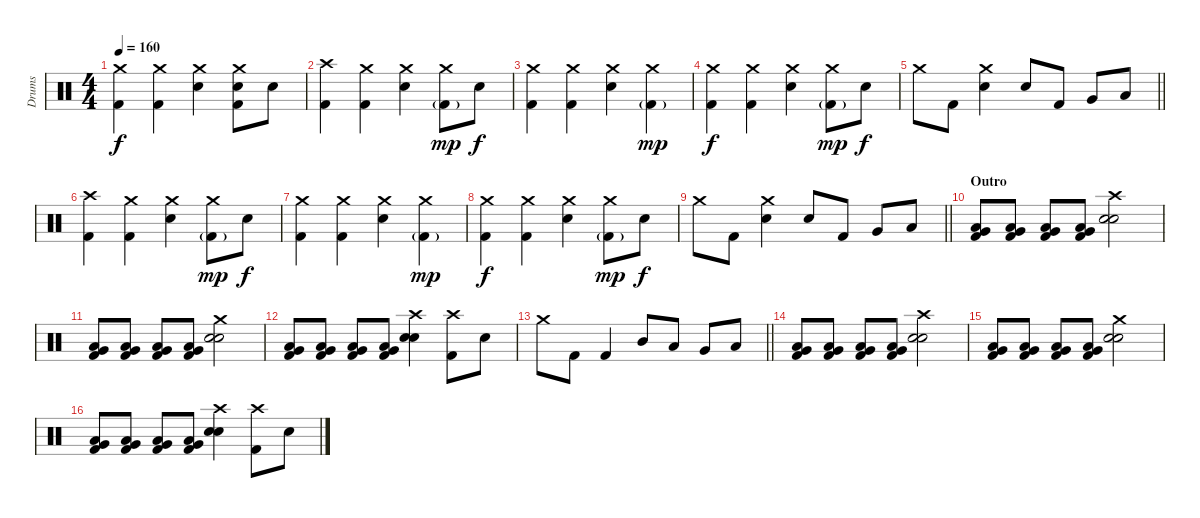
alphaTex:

\track ("Drums" "Drums") {instrument percussion}
\staff {score}
\articulation defaults
\ts (4 4)
\tempo 160
\clef neutral
\ks c
("Crash medium (hit)" "Kick (hit) 2").4{dy f} ("Crash medium (hit)" "Kick (hit) 2").4 ("Crash medium (hit)" "Electric Snare (hit)").4 ("Crash medium (hit)" "Electric Snare (hit)" "Kick (hit) 2").8 "Electric Snare (hit)".8 |
("Crash high (hit)" "Kick (hit) 2").4 ("Crash medium (hit)" "Kick (hit) 2").4 ("Crash medium (hit)" "Electric Snare (hit)").4 ("Crash medium (hit)" "Kick (hit) 2"{g}).8{dy mp} "Electric Snare (hit)".8{dy f} |
("Crash medium (hit)" "Kick (hit) 2").4 ("Crash medium (hit)" "Kick (hit) 2").4 ("Crash medium (hit)" "Electric Snare (hit)").4 ("Crash medium (hit)" "Kick (hit) 2"{g}).4{dy mp} |
("Crash medium (hit)" "Kick (hit) 2").4{dy f} ("Crash medium (hit)" "Kick (hit) 2").4 ("Crash medium (hit)" "Electric Snare (hit)").4 ("Crash medium (hit)" "Kick (hit) 2"{g}).8{dy mp} "Electric Snare (hit)".8{dy f} |
\barLineRight lightlight "Crash medium (hit)".8 "Kick (hit) 2".8
("Crash medium (hit)" "Electric Snare (hit)").4 "Electric Snare (hit)".8 "Kick (hit) 2".8 "Very Low Tom (hit)".8 "Low Tom (hit)".8 |
("Crash high (hit)" "Kick (hit) 2").4 ("Crash medium (hit)" "Kick (hit) 2").4 ("Crash medium (hit)" "Electric Snare (hit)").4 ("Crash medium (hit)" "Kick (hit) 2"{g}).8{dy mp} "Electric Snare (hit)".8{dy f} |
("Crash medium (hit)" "Kick (hit) 2").4 ("Crash medium (hit)" "Kick (hit) 2").4 ("Crash medium (hit)" "Electric Snare (hit)").4 ("Crash medium (hit)" "Kick (hit) 2"{g}).4{dy mp} |
("Crash medium (hit)" "Kick (hit) 2").4{dy f} ("Crash medium (hit)" "Kick (hit) 2").4 ("Crash medium (hit)" "Electric Snare (hit)").4 ("Crash medium (hit)" "Kick (hit) 2"{g}).8{dy mp} "Electric Snare (hit)".8{dy f} |
\barLineRight lightlight "Crash medium (hit)".8 "Kick (hit) 2".8
("Crash medium (hit)" "Electric Snare (hit)").4 "Electric Snare (hit)".8 "Kick (hit) 2".8 "Very Low Tom (hit)".8 "Low Tom (hit)".8 |
\section ("" "Outro")
("Very Low Tom (hit)" "Low Floor Tom (hit)" "Kick (hit) 2").8 ("Very Low Tom (hit)" "Low Floor Tom (hit)" "Kick (hit) 2").8 ("Very Low Tom (hit)" "Low Floor Tom (hit)" "Kick (hit) 2").8 ("Very Low Tom (hit)" "Low Floor Tom (hit)" "Kick (hit) 2").8 ("Crash high (hit)" "Hand Clap (hit)" "Electric Snare (hit)").2 |
("Very Low Tom (hit)" "Low Floor Tom (hit)" "Kick (hit) 2").8 ("Very Low Tom (hit)" "Low Floor Tom (hit)" "Kick (hit) 2").8 ("Very Low Tom (hit)" "Low Floor Tom (hit)" "Kick (hit) 2").8 ("Very Low Tom (hit)" "Low Floor Tom (hit)" "Kick (hit) 2").8 ("Crash medium (hit)" "Hand Clap (hit)" "Electric Snare (hit)").2 |
("Very Low Tom (hit)" "Low Floor Tom (hit)" "Kick (hit) 2").8 ("Very Low Tom (hit)" "Low Floor Tom (hit)" "Kick (hit) 2").8 ("Very Low Tom (hit)" "Low Floor Tom (hit)" "Kick (hit) 2").8 ("Very Low Tom (hit)" "Low Floor Tom (hit)" "Kick (hit) 2").8 ("Crash high (hit)" "Hand Clap (hit)" "Electric Snare (hit)").4 ("Crash high (hit)" "Kick (hit) 2").8 "Electric Snare (hit)".8 |
\barLineRight lightlight "Crash medium (hit)".8 "Kick (hit) 2".8 "Kick (hit) 2".4 "Mid Tom (hit)".8 "Low Tom (hit)".8 "Very Low Tom (hit)".8 "Low Floor Tom (hit)".8
|
("Very Low Tom (hit)" "Low Floor Tom (hit)" "Kick (hit) 2").8 ("Very Low Tom (hit)" "Low Floor Tom (hit)" "Kick (hit) 2").8 ("Very Low Tom (hit)" "Low Floor Tom (hit)" "Kick (hit) 2").8 ("Very Low Tom (hit)" "Low Floor Tom (hit)" "Kick (hit) 2").8 ("Crash high (hit)" "Hand Clap (hit)" "Electric Snare (hit)").2 |
("Very Low Tom (hit)" "Low Floor Tom (hit)" "Kick (hit) 2").8 ("Very Low Tom (hit)" "Low Floor Tom (hit)" "Kick (hit) 2").8 ("Very Low Tom (hit)" "Low Floor Tom (hit)" "Kick (hit) 2").8 ("Very Low Tom (hit)" "Low Floor Tom (hit)" "Kick (hit) 2").8 ("Crash medium (hit)" "Hand Clap (hit)" "Electric Snare (hit)").2 |
("Very Low Tom (hit)" "Low Floor Tom (hit)" "Kick (hit) 2").8 ("Very Low Tom (hit)" "Low Floor Tom (hit)" "Kick (hit) 2").8 ("Very Low Tom (hit)" "Low Floor Tom (hit)" "Kick (hit) 2").8 ("Very Low Tom (hit)" "Low Floor Tom (hit)" "Kick (hit) 2").8 ("Crash high (hit)" "Hand Clap (hit)" "Electric Snare (hit)").4 ("Crash high (hit)" "Kick (hit) 2").8 "Electric Snare (hit)".8
